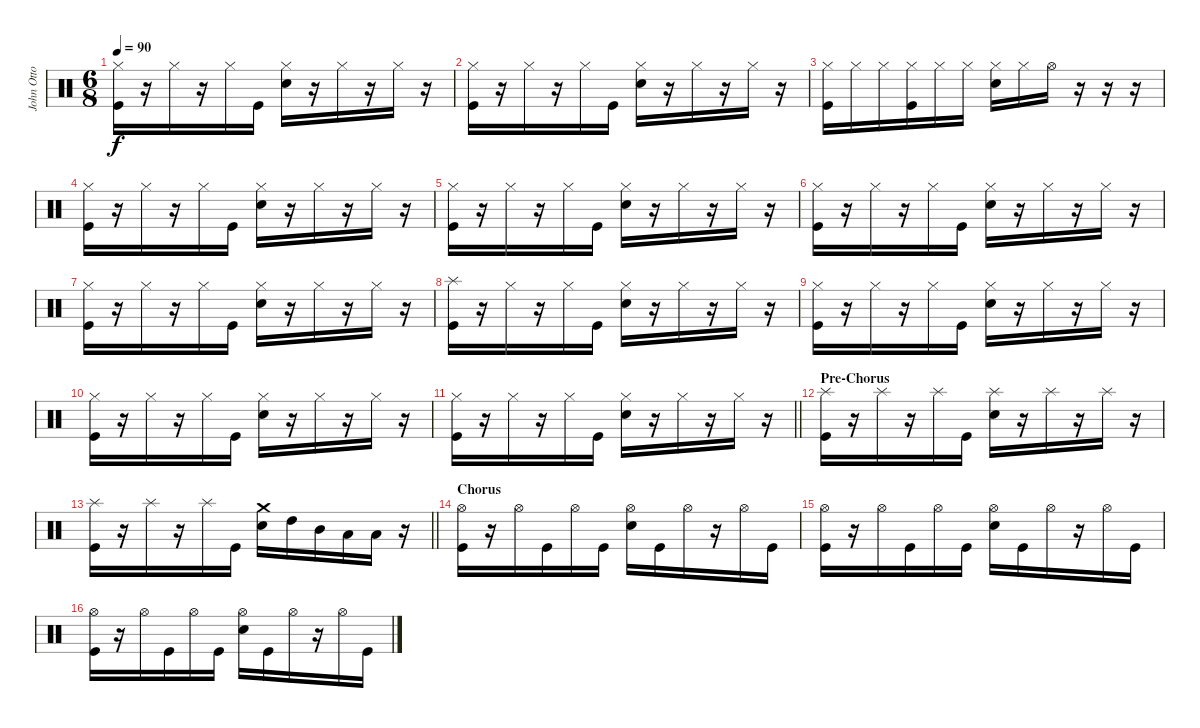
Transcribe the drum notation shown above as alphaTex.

\track ("John Otto" "John Otto") {instrument percussion}
\staff {score}
\articulation defaults
\ts (6 8)
\tempo 90
\clef neutral
\ks c
("Hi-Hat (closed)" "Kick (hit)").16{dy f} r.16 "Hi-Hat (closed)".16 r.16 "Hi-Hat (closed)".16 "Kick (hit)".16 ("Hi-Hat (closed)" "Electric Snare (hit)").16 r.16 "Hi-Hat (closed)".16 r.16 "Hi-Hat (closed)".16 r.16 |
("Hi-Hat (closed)" "Kick (hit)").16 r.16 "Hi-Hat (closed)".16 r.16 "Hi-Hat (closed)".16 "Kick (hit)".16 ("Hi-Hat (closed)" "Electric Snare (hit)").16 r.16 "Hi-Hat (closed)".16 r.16 "Hi-Hat (closed)".16 r.16 |
("Hi-Hat (closed)" "Kick (hit)").16 "Hi-Hat (closed)".16 "Hi-Hat (closed)".16 ("Hi-Hat (closed)" "Kick (hit)").16 "Hi-Hat (closed)".16 "Hi-Hat (closed)".16 ("Hi-Hat (closed)" "Electric Snare (hit)").16 "Hi-Hat (closed)".16 "Hi-Hat (open)".16 r.16 r.16 r.16 |
("Hi-Hat (closed)" "Kick (hit)").16 r.16 "Hi-Hat (closed)".16 r.16 "Hi-Hat (closed)".16 "Kick (hit)".16 ("Hi-Hat (closed)" "Electric Snare (hit)").16 r.16 "Hi-Hat (closed)".16 r.16 "Hi-Hat (closed)".16 r.16 |
("Hi-Hat (closed)" "Kick (hit)").16 r.16 "Hi-Hat (closed)".16 r.16 "Hi-Hat (closed)".16 "Kick (hit)".16 ("Hi-Hat (closed)" "Electric Snare (hit)").16 r.16 "Hi-Hat (closed)".16 r.16 "Hi-Hat (closed)".16 r.16 |
("Hi-Hat (closed)" "Kick (hit)").16 r.16 "Hi-Hat (closed)".16 r.16 "Hi-Hat (closed)".16 "Kick (hit)".16 ("Hi-Hat (closed)" "Electric Snare (hit)").16 r.16 "Hi-Hat (closed)".16 r.16 "Hi-Hat (closed)".16 r.16 |
("Hi-Hat (closed)" "Kick (hit)").16 r.16 "Hi-Hat (closed)".16 r.16 "Hi-Hat (closed)".16 "Kick (hit)".16 ("Hi-Hat (closed)" "Electric Snare (hit)").16 r.16 "Hi-Hat (closed)".16 r.16 "Hi-Hat (closed)".16 r.16 |
("Splash (hit)" "Kick (hit)").16 r.16 "Hi-Hat (closed)".16 r.16 "Hi-Hat (closed)".16 "Kick (hit)".16 ("Hi-Hat (closed)" "Electric Snare (hit)").16 r.16 "Hi-Hat (closed)".16 r.16 "Hi-Hat (closed)".16 r.16 |
("Hi-Hat (closed)" "Kick (hit)").16 r.16 "Hi-Hat (closed)".16 r.16 "Hi-Hat (closed)".16 "Kick (hit)".16 ("Hi-Hat (closed)" "Electric Snare (hit)").16 r.16 "Hi-Hat (closed)".16 r.16 "Hi-Hat (closed)".16 r.16 |
("Hi-Hat (closed)" "Kick (hit)").16 r.16 "Hi-Hat (closed)".16 r.16 "Hi-Hat (closed)".16 "Kick (hit)".16 ("Hi-Hat (closed)" "Electric Snare (hit)").16 r.16 "Hi-Hat (closed)".16 r.16 "Hi-Hat (closed)".16 r.16 |
\barLineRight lightlight
("Hi-Hat (closed)" "Kick (hit)").16 r.16 "Hi-Hat (closed)".16 r.16 "Hi-Hat (closed)".16 "Kick (hit)".16 ("Hi-Hat (closed)" "Electric Snare (hit)").16 r.16 "Hi-Hat (closed)".16 r.16 "Hi-Hat (closed)".16 r.16 |
\section ("" "Pre-Chorus")
("Splash (hit)" "Kick (hit)").16 r.16 "Splash (hit)".16 r.16 "Splash (hit)".16 "Kick (hit)".16 ("Splash (hit)" "Electric Snare (hit)").16 r.16 "Splash (hit)".16 r.16 "Splash (hit)".16 r.16 |
\barLineRight lightlight
("Splash (hit)" "Kick (hit)").16 r.16 "Splash (hit)".16 r.16 "Splash (hit)".16 "Kick (hit)".16 ("Crash medium (hit)" "Electric Snare (hit)").16 "High Tom (hit)".16 "Mid Tom (hit)".16 "Low Tom (hit)".16 "Low Floor Tom (hit)".16 r.16 |
\section ("" "Chorus")
("Hi-Hat (open)" "Kick (hit)").16 r.16 "Hi-Hat (open)".16 "Kick (hit)".16 "Hi-Hat (open)".16 "Kick (hit)".16 ("Hi-Hat (open)" "Electric Snare (hit)").16 "Kick (hit)".16 "Hi-Hat (open)".16 r.16 "Hi-Hat (open)".16 "Kick (hit)".16 |
("Hi-Hat (open)" "Kick (hit)").16 r.16 "Hi-Hat (open)".16 "Kick (hit)".16 "Hi-Hat (open)".16 "Kick (hit)".16 ("Hi-Hat (open)" "Electric Snare (hit)").16 "Kick (hit)".16 "Hi-Hat (open)".16 r.16 "Hi-Hat (open)".16 "Kick (hit)".16 |
("Hi-Hat (open)" "Kick (hit)").16 r.16 "Hi-Hat (open)".16 "Kick (hit)".16 "Hi-Hat (open)".16 "Kick (hit)".16 ("Hi-Hat (open)" "Electric Snare (hit)").16 "Kick (hit)".16 "Hi-Hat (open)".16 r.16 "Hi-Hat (open)".16 "Kick (hit)".16
